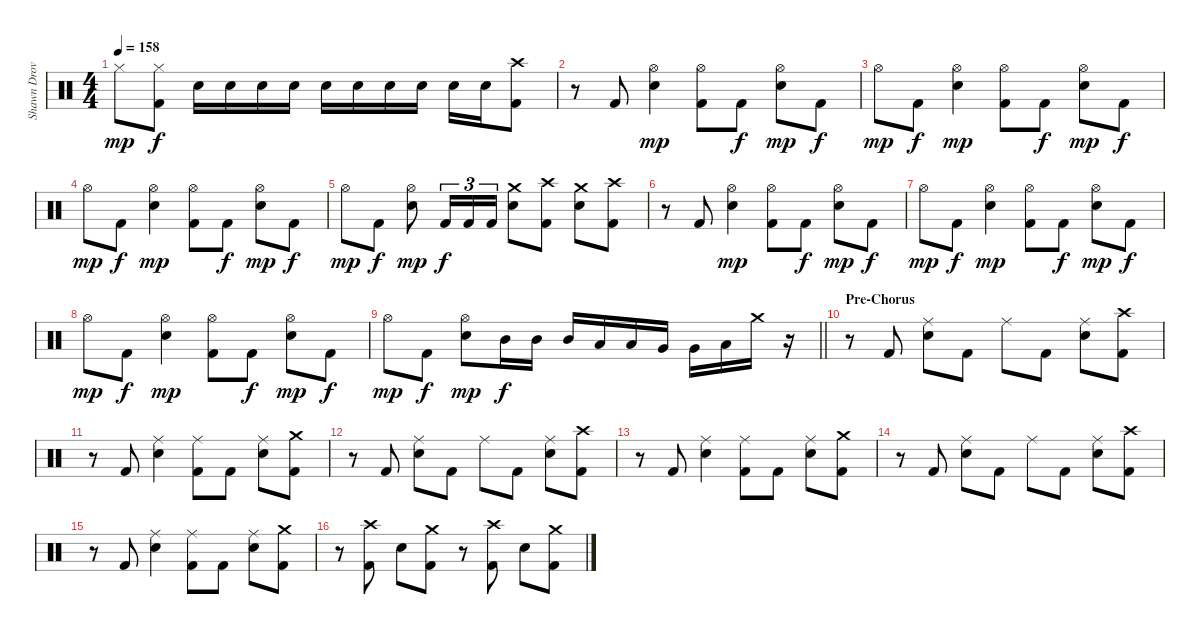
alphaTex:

\track ("Shawn Drover" "Shawn Drov") {instrument percussion}
\staff
\articulation defaults
\ts (4 4)
\tempo 158
\clef neutral
\ks c "Hi-Hat (closed)".8{dy mp}
("Hi-Hat (closed)" "Kick (hit) 2").8{dy f} "Snare (hit) 2".16 "Snare (hit) 2".16 "Snare (hit) 2".16 "Snare (hit) 2".16 "Snare (hit) 2".16 "Snare (hit) 2".16 "Snare (hit) 2".16 "Snare (hit) 2".16 "Snare (hit) 2".16 "Snare (hit) 2".16 ("Crash high (hit)" "Kick (hit) 2").8 |
r.8 "Kick (hit) 2".8 ("Hi-Hat (open)" "Snare (hit) 2").4{dy mp} ("Hi-Hat (open)" "Kick (hit) 2").8 "Kick (hit) 2".8{dy f} ("Hi-Hat (open)" "Snare (hit) 2").8{dy mp} "Kick (hit) 2".8{dy f} |
"Hi-Hat (open)".8{dy mp} "Kick (hit) 2".8{dy f} ("Hi-Hat (open)" "Snare (hit) 2").4{dy mp} ("Hi-Hat (open)" "Kick (hit) 2").8 "Kick (hit) 2".8{dy f} ("Hi-Hat (open)" "Snare (hit) 2").8{dy mp} "Kick (hit) 2".8{dy f} |
"Hi-Hat (open)".8{dy mp} "Kick (hit) 2".8{dy f} ("Hi-Hat (open)" "Snare (hit) 2").4{dy mp} ("Hi-Hat (open)" "Kick (hit) 2").8 "Kick (hit) 2".8{dy f} ("Hi-Hat (open)" "Snare (hit) 2").8{dy mp} "Kick (hit) 2".8{dy f} |
"Hi-Hat (open)".8{dy mp} "Kick (hit) 2".8{dy f} ("Hi-Hat (open)" "Snare (hit) 2").8{dy mp} "Kick (hit) 2".16{tu (3 2) dy f} "Kick (hit) 2".16{tu (3 2)} "Kick (hit) 2".16{tu (3 2)} ("Crash medium (hit)" "Snare (hit) 2").8 ("Crash high (hit)" "Kick (hit) 2").8 ("Crash medium (hit)" "Snare (hit) 2").8 ("Crash high (hit)" "Kick (hit) 2").8 |
r.8 "Kick (hit) 2".8 ("Hi-Hat (open)" "Snare (hit) 2").4{dy mp} ("Hi-Hat (open)" "Kick (hit) 2").8 "Kick (hit) 2".8{dy f} ("Hi-Hat (open)" "Snare (hit) 2").8{dy mp} "Kick (hit) 2".8{dy f} |
"Hi-Hat (open)".8{dy mp} "Kick (hit) 2".8{dy f} ("Hi-Hat (open)" "Snare (hit) 2").4{dy mp} ("Hi-Hat (open)" "Kick (hit) 2").8 "Kick (hit) 2".8{dy f} ("Hi-Hat (open)" "Snare (hit) 2").8{dy mp} "Kick (hit) 2".8{dy f} |
"Hi-Hat (open)".8{dy mp} "Kick (hit) 2".8{dy f} ("Hi-Hat (open)" "Snare (hit) 2").4{dy mp} ("Hi-Hat (open)" "Kick (hit) 2").8 "Kick (hit) 2".8{dy f} ("Hi-Hat (open)" "Snare (hit) 2").8{dy mp} "Kick (hit) 2".8{dy f} |
\barLineRight lightlight "Hi-Hat (open)".8{dy mp} "Kick (hit) 2".8{dy f}
("Hi-Hat (open)" "Snare (hit) 2").8{dy mp} "Mid Tom (hit)".16{dy f} "Mid Tom (hit)".16 "Mid Tom (hit)".16 "Low Tom (hit)".16 "Low Tom (hit)".16 "Very Low Tom (hit)".16 "Very Low Tom (hit)".16 "Low Floor Tom (hit)".16 "Crash medium (hit)".16 r.16 |
\section ("" "Pre-Chorus")
r.8 "Kick (hit) 2".8 ("Ride (middle)" "Snare (hit) 2").8 "Kick (hit) 2".8 "Ride (middle)".8 "Kick (hit) 2".8 ("Ride (middle)" "Snare (hit) 2").8 ("Crash high (hit)" "Kick (hit) 2").8 |
r.8 "Kick (hit) 2".8 ("Ride (middle)" "Snare (hit) 2").4 ("Ride (middle)" "Kick (hit) 2").8 "Kick (hit) 2".8 ("Ride (middle)" "Snare (hit) 2").8 ("Crash medium (hit)" "Kick (hit) 2").8 |
r.8 "Kick (hit) 2".8 ("Ride (middle)" "Snare (hit) 2").8 "Kick (hit) 2".8 "Ride (middle)".8 "Kick (hit) 2".8 ("Ride (middle)" "Snare (hit) 2").8 ("Crash high (hit)" "Kick (hit) 2").8 |
r.8 "Kick (hit) 2".8 ("Ride (middle)" "Snare (hit) 2").4 ("Ride (middle)" "Kick (hit) 2").8 "Kick (hit) 2".8 ("Ride (middle)" "Snare (hit) 2").8 ("Crash medium (hit)" "Kick (hit) 2").8 |
r.8 "Kick (hit) 2".8 ("Ride (middle)" "Snare (hit) 2").8 "Kick (hit) 2".8 "Ride (middle)".8 "Kick (hit) 2".8 ("Ride (middle)" "Snare (hit) 2").8 ("Crash high (hit)" "Kick (hit) 2").8 |
r.8 "Kick (hit) 2".8 ("Ride (middle)" "Snare (hit) 2").4 ("Ride (middle)" "Kick (hit) 2").8 "Kick (hit) 2".8 ("Ride (middle)" "Snare (hit) 2").8 ("Crash medium (hit)" "Kick (hit) 2").8 |
r.8 ("Crash high (hit)" "Kick (hit) 2").8 "Snare (hit) 2".8 ("Crash medium (hit)" "Kick (hit) 2").8 r.8 ("Crash high (hit)" "Kick (hit) 2").8 "Snare (hit) 2".8 ("Crash medium (hit)" "Kick (hit) 2").8
